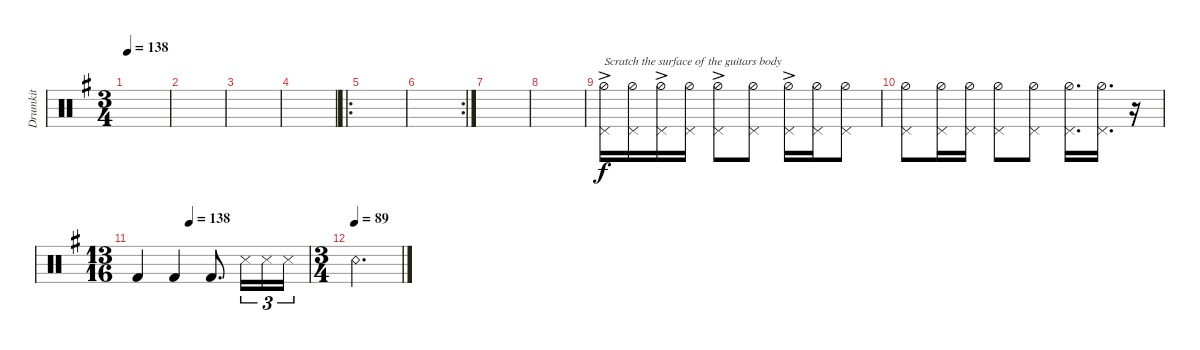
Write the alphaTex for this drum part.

\track ("Drumkit" "Drumkit") {instrument percussion}
\staff {score}
\articulation defaults
\ts (3 4)
\tempo 138
\clef neutral
\ks eminor
|
|
|
|
\ro
|
\rc 2
|
|
|
("Pedal Hi-Hat (hit)"{ac} "Hi-Hat (half)").16{txt "Scratch the surface of the guitars body"} ("Pedal Hi-Hat (hit)" "Hi-Hat (half)").16 ("Pedal Hi-Hat (hit)"{ac} "Hi-Hat (half)").16 ("Pedal Hi-Hat (hit)" "Hi-Hat (half)").16 ("Pedal Hi-Hat (hit)"{ac} "Hi-Hat (half)").8 ("Pedal Hi-Hat (hit)" "Hi-Hat (half)").8 ("Pedal Hi-Hat (hit)"{ac} "Hi-Hat (half)").16 ("Pedal Hi-Hat (hit)" "Hi-Hat (half)").16 ("Pedal Hi-Hat (hit)" "Hi-Hat (half)").8 |
("Pedal Hi-Hat (hit)" "Hi-Hat (half)").8 ("Pedal Hi-Hat (hit)" "Hi-Hat (half)").16 ("Pedal Hi-Hat (hit)" "Hi-Hat (half)").16 ("Pedal Hi-Hat (hit)" "Hi-Hat (half)").8 ("Pedal Hi-Hat (hit)" "Hi-Hat (half)").8 ("Pedal Hi-Hat (hit)" "Hi-Hat (half)").16{d} ("Pedal Hi-Hat (hit)" "Hi-Hat (half)").16{d} r.16 |
\ts (13 16)
\tempo (138 0.3076923076923077)
"Kick (hit) 2".4 "Kick (hit) 2".4 "Kick (hit) 2".8{d} "Snare (side stick) 3".16{tu (3 2)} "Snare (side stick) 3".16{tu (3 2)} "Snare (side stick) 3".16{tu (3 2)} |
\ts (3 4)
\tempo (89)
"Snare (rim shot)".2{d}
